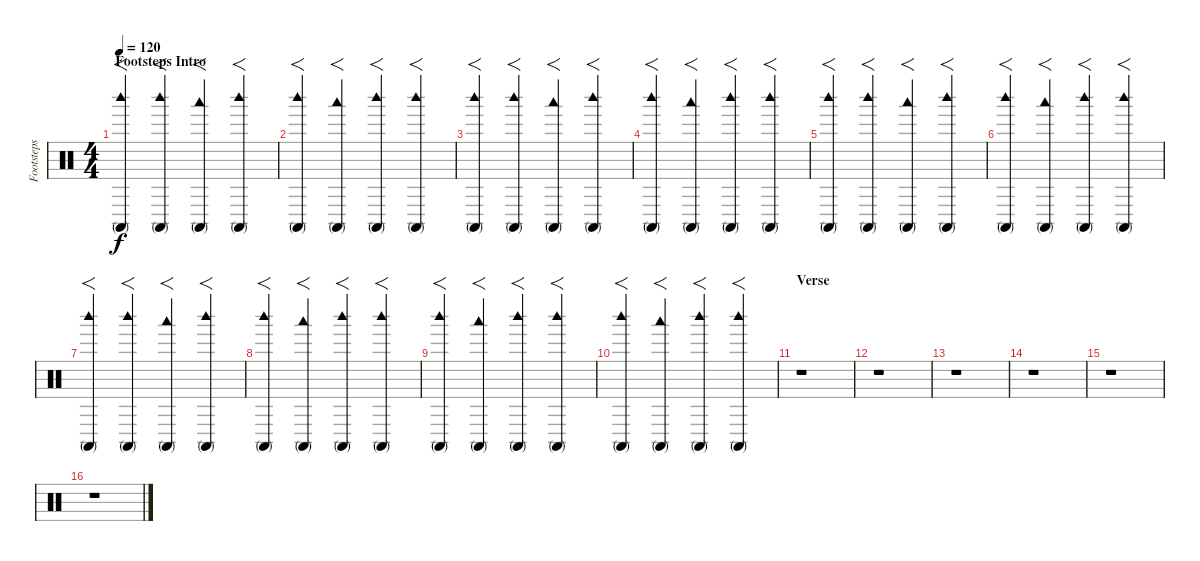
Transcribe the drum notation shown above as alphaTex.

\track ("Footsteps" "Footsteps") {instrument percussion}
\staff {score}
\articulation defaults
\ts (4 4)
\section ("" "Footsteps Intro")
\tempo 120
\clef neutral
\ks c
("Woodblock high (hit)" "Conga high (mute)").4{f dy f} ("Woodblock high (hit)" "Conga high (mute)").4{f} ("Woodblock low (hit)" "Conga high (mute)").4{f} ("Woodblock high (hit)" "Conga high (mute)").4{f} |
("Woodblock high (hit)" "Conga high (mute)").4{f} ("Woodblock low (hit)" "Conga high (mute)").4{f} ("Woodblock high (hit)" "Conga high (mute)").4{f} ("Woodblock high (hit)" "Conga high (mute)").4{f} |
("Woodblock high (hit)" "Conga high (mute)").4{f} ("Woodblock high (hit)" "Conga high (mute)").4{f} ("Woodblock low (hit)" "Conga high (mute)").4{f} ("Woodblock high (hit)" "Conga high (mute)").4{f} |
("Woodblock high (hit)" "Conga high (mute)").4{f} ("Woodblock low (hit)" "Conga high (mute)").4{f} ("Woodblock high (hit)" "Conga high (mute)").4{f} ("Woodblock high (hit)" "Conga high (mute)").4{f} |
("Woodblock high (hit)" "Conga high (mute)").4{f} ("Woodblock high (hit)" "Conga high (mute)").4{f} ("Woodblock low (hit)" "Conga high (mute)").4{f} ("Woodblock high (hit)" "Conga high (mute)").4{f} |
("Woodblock high (hit)" "Conga high (mute)").4{f} ("Woodblock low (hit)" "Conga high (mute)").4{f} ("Woodblock high (hit)" "Conga high (mute)").4{f} ("Woodblock high (hit)" "Conga high (mute)").4{f} |
("Woodblock high (hit)" "Conga high (mute)").4{f} ("Woodblock high (hit)" "Conga high (mute)").4{f} ("Woodblock low (hit)" "Conga high (mute)").4{f} ("Woodblock high (hit)" "Conga high (mute)").4{f} |
("Woodblock high (hit)" "Conga high (mute)").4{f} ("Woodblock low (hit)" "Conga high (mute)").4{f} ("Woodblock high (hit)" "Conga high (mute)").4{f} ("Woodblock high (hit)" "Conga high (mute)").4{f} |
("Woodblock high (hit)" "Conga high (mute)").4{f} ("Woodblock low (hit)" "Conga high (mute)").4{f} ("Woodblock high (hit)" "Conga high (mute)").4{f} ("Woodblock high (hit)" "Conga high (mute)").4{f} |
("Woodblock high (hit)" "Conga high (mute)").4{f} ("Woodblock low (hit)" "Conga high (mute)").4{f} ("Woodblock high (hit)" "Conga high (mute)").4{f} ("Woodblock high (hit)" "Conga high (mute)").4{f} |
\section ("" "Verse")
r.1 |
r.1 |
r.1 |
r.1 |
r.1 |
r.1
